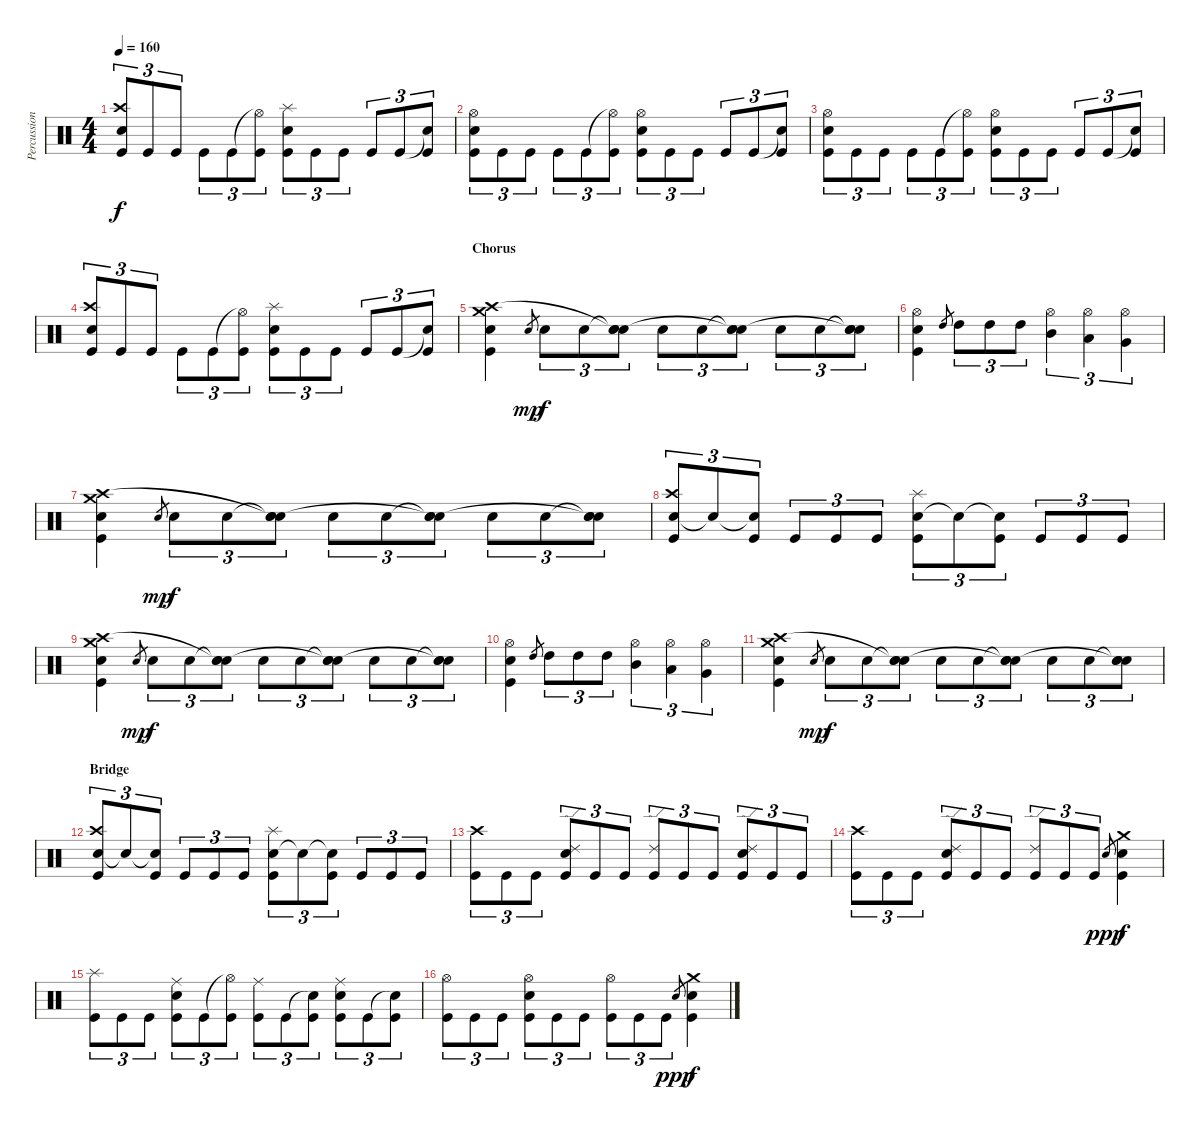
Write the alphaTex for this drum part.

\track ("Percussion" "Percussion") {instrument percussion}
\staff {score}
\articulation defaults
\ts (4 4)
\tempo 160
\clef neutral
\ks c
("Snare (hit) 2" "Crash high (hit)" "Kick (hit)").8{tu (3 2) dy f} "Kick (hit)".8{tu (3 2)} "Kick (hit)".8{tu (3 2)} "Kick (hit)".8{tu (3 2)} "Kick (hit)".8{tu (3 2)} ("Hi-Hat (open)"{t} "Kick (hit)").8{tu (3 2)} ("Splash (hit)" "Snare (hit) 2" "Kick (hit)").8{tu (3 2)} "Kick (hit)".8{tu (3 2)} "Kick (hit)".8{tu (3 2)} "Kick (hit)".8{tu (3 2)} "Kick (hit)".8{tu (3 2)} ("Snare (hit)"{t} "Kick (hit)").8{tu (3 2)} |
("Snare (hit) 2" "Hi-Hat (open)" "Kick (hit)").8{tu (3 2)} "Kick (hit)".8{tu (3 2)} "Kick (hit)".8{tu (3 2)} "Kick (hit)".8{tu (3 2)} "Kick (hit)".8{tu (3 2)} ("Hi-Hat (open)"{t} "Kick (hit)").8{tu (3 2)} ("Hi-Hat (open)" "Snare (hit) 2" "Kick (hit)").8{tu (3 2)} "Kick (hit)".8{tu (3 2)} "Kick (hit)".8{tu (3 2)} "Kick (hit)".8{tu (3 2)} "Kick (hit)".8{tu (3 2)} ("Snare (hit)"{t} "Kick (hit)").8{tu (3 2)} |
("Snare (hit) 2" "Hi-Hat (open)" "Kick (hit)").8{tu (3 2)} "Kick (hit)".8{tu (3 2)} "Kick (hit)".8{tu (3 2)} "Kick (hit)".8{tu (3 2)} "Kick (hit)".8{tu (3 2)} ("Hi-Hat (open)"{t} "Kick (hit)").8{tu (3 2)} ("Hi-Hat (open)" "Snare (hit) 2" "Kick (hit)").8{tu (3 2)} "Kick (hit)".8{tu (3 2)} "Kick (hit)".8{tu (3 2)} "Kick (hit)".8{tu (3 2)} "Kick (hit)".8{tu (3 2)} ("Snare (hit)"{t} "Kick (hit)").8{tu (3 2)} |
("Snare (hit) 2" "Crash high (hit)" "Kick (hit)").8{tu (3 2)} "Kick (hit)".8{tu (3 2)} "Kick (hit)".8{tu (3 2)} "Kick (hit)".8{tu (3 2)} "Kick (hit)".8{tu (3 2)} ("Hi-Hat (open)"{t} "Kick (hit)").8{tu (3 2)} ("Splash (hit)" "Snare (hit) 2" "Kick (hit)").8{tu (3 2)} "Kick (hit)".8{tu (3 2)} "Kick (hit)".8{tu (3 2)} "Kick (hit)".8{tu (3 2)} "Kick (hit)".8{tu (3 2)} ("Snare (hit)"{t} "Kick (hit)").8{tu (3 2)} |
\section ("" "Chorus")
("Crash medium (hit)" "Crash high (hit)" "Snare (hit) 2" "Kick (hit)").4 "Snare (hit) 2".8{gr dy mp} "Snare (hit) 2".8{tu (3 2) dy f} "Snare (hit) 2".8{tu (3 2)} ("Snare (hit)"{t} "Snare (hit)"{t} "Snare (hit) 2").8{tu (3 2)} "Snare (hit) 2".8{tu (3 2)} "Snare (hit) 2".8{tu (3 2)} ("Snare (hit)"{t} "Snare (hit)"{t} "Snare (hit) 2").8{tu (3 2)} "Snare (hit) 2".8{tu (3 2)} "Snare (hit) 2".8{tu (3 2)} ("Snare (hit)"{t} "Snare (hit)"{t} "Snare (hit) 2").8{tu (3 2)} |
("Hi-Hat (open)" "Snare (hit) 2" "Kick (hit)").4 "High Tom (hit)".8{gr} "High Tom (hit)".8{tu (3 2)} "High Tom (hit)".8{tu (3 2)} "High Tom (hit)".8{tu (3 2)} ("Hi-Hat (open)" "Mid Tom (hit)").4{tu (3 2)} ("Hi-Hat (open)" "Low Tom (hit)").4{tu (3 2)} ("Hi-Hat (open)" "Very Low Tom (hit)").4{tu (3 2)} |
("Crash medium (hit)" "Crash high (hit)" "Snare (hit) 2" "Kick (hit)").4 "Snare (hit) 2".8{gr dy mp} "Snare (hit) 2".8{tu (3 2) dy f} "Snare (hit) 2".8{tu (3 2)} ("Snare (hit)"{t} "Snare (hit)"{t} "Snare (hit) 2").8{tu (3 2)} "Snare (hit) 2".8{tu (3 2)} "Snare (hit) 2".8{tu (3 2)} ("Snare (hit)"{t} "Snare (hit)"{t} "Snare (hit) 2").8{tu (3 2)} "Snare (hit) 2".8{tu (3 2)} "Snare (hit) 2".8{tu (3 2)} ("Snare (hit)"{t} "Snare (hit)"{t} "Snare (hit) 2").8{tu (3 2)} |
("Snare (hit) 2" "Crash high (hit)" "Kick (hit)").8{tu (3 2)} "Snare (hit)"{t}.8{tu (3 2)} ("Snare (hit)"{t} "Kick (hit)").8{tu (3 2)} "Kick (hit)".8{tu (3 2)} "Kick (hit)".8{tu (3 2)} "Kick (hit)".8{tu (3 2)} ("Snare (hit) 2" "Splash (hit)" "Kick (hit)").8{tu (3 2)} "Snare (hit)"{t}.8{tu (3 2)} ("Snare (hit)"{t} "Kick (hit)").8{tu (3 2)} "Kick (hit)".8{tu (3 2)} "Kick (hit)".8{tu (3 2)} "Kick (hit)".8{tu (3 2)} |
("Crash medium (hit)" "Crash high (hit)" "Snare (hit) 2" "Kick (hit)").4 "Snare (hit) 2".8{gr dy mp} "Snare (hit) 2".8{tu (3 2) dy f} "Snare (hit) 2".8{tu (3 2)} ("Snare (hit)"{t} "Snare (hit)"{t} "Snare (hit) 2").8{tu (3 2)} "Snare (hit) 2".8{tu (3 2)} "Snare (hit) 2".8{tu (3 2)} ("Snare (hit)"{t} "Snare (hit)"{t} "Snare (hit) 2").8{tu (3 2)} "Snare (hit) 2".8{tu (3 2)} "Snare (hit) 2".8{tu (3 2)} ("Snare (hit)"{t} "Snare (hit)"{t} "Snare (hit) 2").8{tu (3 2)} |
("Hi-Hat (open)" "Snare (hit) 2" "Kick (hit)").4 "High Tom (hit)".8{gr} "High Tom (hit)".8{tu (3 2)} "High Tom (hit)".8{tu (3 2)} "High Tom (hit)".8{tu (3 2)} ("Hi-Hat (open)" "Mid Tom (hit)").4{tu (3 2)} ("Hi-Hat (open)" "Low Tom (hit)").4{tu (3 2)} ("Hi-Hat (open)" "Very Low Tom (hit)").4{tu (3 2)} |
("Crash medium (hit)" "Crash high (hit)" "Snare (hit) 2" "Kick (hit)").4 "Snare (hit) 2".8{gr dy mp} "Snare (hit) 2".8{tu (3 2) dy f} "Snare (hit) 2".8{tu (3 2)} ("Snare (hit)"{t} "Snare (hit)"{t} "Snare (hit) 2").8{tu (3 2)} "Snare (hit) 2".8{tu (3 2)} "Snare (hit) 2".8{tu (3 2)} ("Snare (hit)"{t} "Snare (hit)"{t} "Snare (hit) 2").8{tu (3 2)} "Snare (hit) 2".8{tu (3 2)} "Snare (hit) 2".8{tu (3 2)} ("Snare (hit)"{t} "Snare (hit)"{t} "Snare (hit) 2").8{tu (3 2)} |
\section ("" "Bridge")
("Snare (hit) 2" "Crash high (hit)" "Kick (hit)").8{tu (3 2)} "Snare (hit)"{t}.8{tu (3 2)} ("Snare (hit)"{t} "Kick (hit)").8{tu (3 2)} "Kick (hit)".8{tu (3 2)} "Kick (hit)".8{tu (3 2)} "Kick (hit)".8{tu (3 2)} ("Snare (hit) 2" "Splash (hit)" "Kick (hit)").8{tu (3 2)} "Snare (hit)"{t}.8{tu (3 2)} ("Snare (hit)"{t} "Kick (hit)").8{tu (3 2)} "Kick (hit)".8{tu (3 2)} "Kick (hit)".8{tu (3 2)} "Kick (hit)".8{tu (3 2)} |
("Crash high (hit)" "Kick (hit)").8{tu (3 2)} "Kick (hit)".8{tu (3 2)} "Kick (hit)".8{tu (3 2)} ("Snare (hit) 2" "Ride (edge) 2" "Kick (hit)").8{tu (3 2)} "Kick (hit)".8{tu (3 2)} "Kick (hit)".8{tu (3 2)} ("Ride (edge) 2" "Kick (hit)").8{tu (3 2)} "Kick (hit)".8{tu (3 2)} "Kick (hit)".8{tu (3 2)} ("Snare (hit) 2" "Ride (edge) 2" "Kick (hit)").8{tu (3 2)} "Kick (hit)".8{tu (3 2)} "Kick (hit)".8{tu (3 2)} |
("Crash high (hit)" "Kick (hit)").8{tu (3 2)} "Kick (hit)".8{tu (3 2)} "Kick (hit)".8{tu (3 2)} ("Snare (hit) 2" "Ride (edge) 2" "Kick (hit)").8{tu (3 2)} "Kick (hit)".8{tu (3 2)} "Kick (hit)".8{tu (3 2)} ("Ride (edge) 2" "Kick (hit)").8{tu (3 2)} "Kick (hit)".8{tu (3 2)} "Kick (hit)".8{tu (3 2)} "Snare (hit) 2".8{gr dy ppp} ("Snare (hit) 2" "Crash medium (hit)" "Kick (hit)").4{dy f} |
("Splash (hit)" "Kick (hit)").8{tu (3 2)} "Kick (hit)".8{tu (3 2)} "Kick (hit)".8{tu (3 2)} ("Snare (hit) 2" "Ride (middle)" "Kick (hit)").8{tu (3 2)} "Kick (hit)".8{tu (3 2)} ("Hi-Hat (open)"{t} "Kick (hit)").8{tu (3 2)} ("Ride (middle)" "Kick (hit)").8{tu (3 2)} "Kick (hit)".8{tu (3 2)} ("Snare (hit)"{t} "Kick (hit)").8{tu (3 2)} ("Snare (hit) 2" "Ride (middle)" "Kick (hit)").8{tu (3 2)} "Kick (hit)".8{tu (3 2)} ("Snare (hit)"{t} "Kick (hit)").8{tu (3 2)} |
("Hi-Hat (open)" "Kick (hit)").8{tu (3 2)} "Kick (hit)".8{tu (3 2)} "Kick (hit)".8{tu (3 2)} ("Snare (hit) 2" "Hi-Hat (open)" "Kick (hit)").8{tu (3 2)} "Kick (hit)".8{tu (3 2)} "Kick (hit)".8{tu (3 2)} ("Hi-Hat (open)" "Kick (hit)").8{tu (3 2)} "Kick (hit)".8{tu (3 2)} "Kick (hit)".8{tu (3 2)} "Snare (hit) 2".8{gr dy ppp} ("Snare (hit) 2" "Crash medium (hit)" "Kick (hit)").4{dy f}
